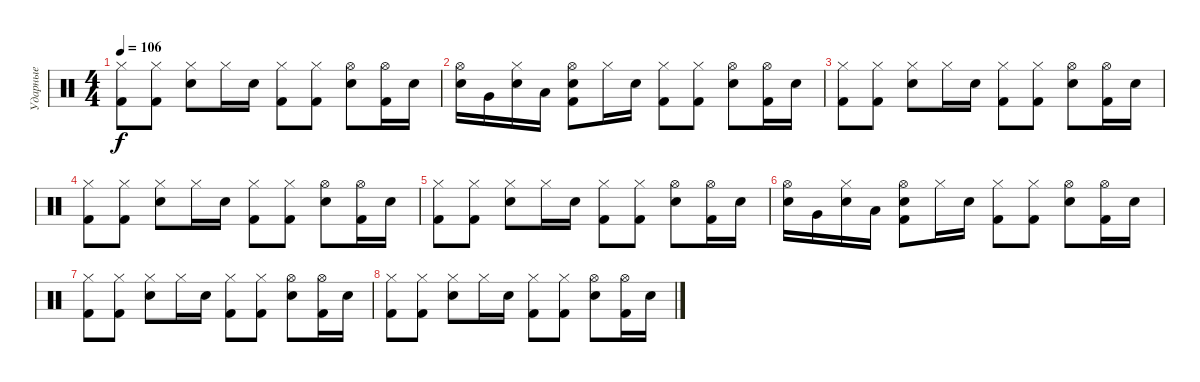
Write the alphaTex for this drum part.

\track ("Ударные" "Ударные") {instrument percussion}
\staff {score}
\articulation defaults
\ts (4 4)
\tempo 106
\clef neutral
\ks c
("Hi-Hat (closed)" "Kick (hit) 2").8{dy f} ("Hi-Hat (closed)" "Kick (hit) 2").8 ("Hi-Hat (closed)" "Electric Snare (hit)").8 "Hi-Hat (closed)".16 "Electric Snare (hit)".16 ("Hi-Hat (closed)" "Kick (hit) 2").8 ("Hi-Hat (closed)" "Kick (hit) 2").8 ("Hi-Hat (open)" "Electric Snare (hit)").8 ("Hi-Hat (open)" "Kick (hit) 2").16 "Electric Snare (hit)".16 |
("Hi-Hat (open)" "Electric Snare (hit)").16 "Very Low Tom (hit)".16 ("Hi-Hat (closed)" "Electric Snare (hit)").16 "Low Tom (hit)".16 ("Hi-Hat (open)" "Electric Snare (hit)" "Kick (hit) 2").8 "Hi-Hat (closed)".16 "Electric Snare (hit)".16 ("Hi-Hat (closed)" "Kick (hit) 2").8 ("Hi-Hat (closed)" "Kick (hit) 2").8 ("Hi-Hat (open)" "Electric Snare (hit)").8 ("Hi-Hat (open)" "Kick (hit) 2").16 "Electric Snare (hit)".16 |
("Hi-Hat (closed)" "Kick (hit) 2").8 ("Hi-Hat (closed)" "Kick (hit) 2").8 ("Hi-Hat (closed)" "Electric Snare (hit)").8 "Hi-Hat (closed)".16 "Electric Snare (hit)".16 ("Hi-Hat (closed)" "Kick (hit) 2").8 ("Hi-Hat (closed)" "Kick (hit) 2").8 ("Hi-Hat (open)" "Electric Snare (hit)").8 ("Hi-Hat (open)" "Kick (hit) 2").16 "Electric Snare (hit)".16 |
("Hi-Hat (closed)" "Kick (hit) 2").8 ("Hi-Hat (closed)" "Kick (hit) 2").8 ("Hi-Hat (closed)" "Electric Snare (hit)").8 "Hi-Hat (closed)".16 "Electric Snare (hit)".16 ("Hi-Hat (closed)" "Kick (hit) 2").8 ("Hi-Hat (closed)" "Kick (hit) 2").8 ("Hi-Hat (open)" "Electric Snare (hit)").8 ("Hi-Hat (open)" "Kick (hit) 2").16 "Electric Snare (hit)".16 |
("Hi-Hat (closed)" "Kick (hit) 2").8 ("Hi-Hat (closed)" "Kick (hit) 2").8 ("Hi-Hat (closed)" "Electric Snare (hit)").8 "Hi-Hat (closed)".16 "Electric Snare (hit)".16 ("Hi-Hat (closed)" "Kick (hit) 2").8 ("Hi-Hat (closed)" "Kick (hit) 2").8 ("Hi-Hat (open)" "Electric Snare (hit)").8 ("Hi-Hat (open)" "Kick (hit) 2").16 "Electric Snare (hit)".16 |
("Hi-Hat (open)" "Electric Snare (hit)").16 "Very Low Tom (hit)".16 ("Hi-Hat (closed)" "Electric Snare (hit)").16 "Low Tom (hit)".16 ("Hi-Hat (open)" "Electric Snare (hit)" "Kick (hit) 2").8 "Hi-Hat (closed)".16 "Electric Snare (hit)".16 ("Hi-Hat (closed)" "Kick (hit) 2").8 ("Hi-Hat (closed)" "Kick (hit) 2").8 ("Hi-Hat (open)" "Electric Snare (hit)").8 ("Hi-Hat (open)" "Kick (hit) 2").16 "Electric Snare (hit)".16 |
("Hi-Hat (closed)" "Kick (hit) 2").8 ("Hi-Hat (closed)" "Kick (hit) 2").8 ("Hi-Hat (closed)" "Electric Snare (hit)").8 "Hi-Hat (closed)".16 "Electric Snare (hit)".16 ("Hi-Hat (closed)" "Kick (hit) 2").8 ("Hi-Hat (closed)" "Kick (hit) 2").8 ("Hi-Hat (open)" "Electric Snare (hit)").8 ("Hi-Hat (open)" "Kick (hit) 2").16 "Electric Snare (hit)".16 |
("Hi-Hat (closed)" "Kick (hit) 2").8 ("Hi-Hat (closed)" "Kick (hit) 2").8 ("Hi-Hat (closed)" "Electric Snare (hit)").8 "Hi-Hat (closed)".16 "Electric Snare (hit)".16 ("Hi-Hat (closed)" "Kick (hit) 2").8 ("Hi-Hat (closed)" "Kick (hit) 2").8 ("Hi-Hat (open)" "Electric Snare (hit)").8 ("Hi-Hat (open)" "Kick (hit) 2").16 "Electric Snare (hit)".16
